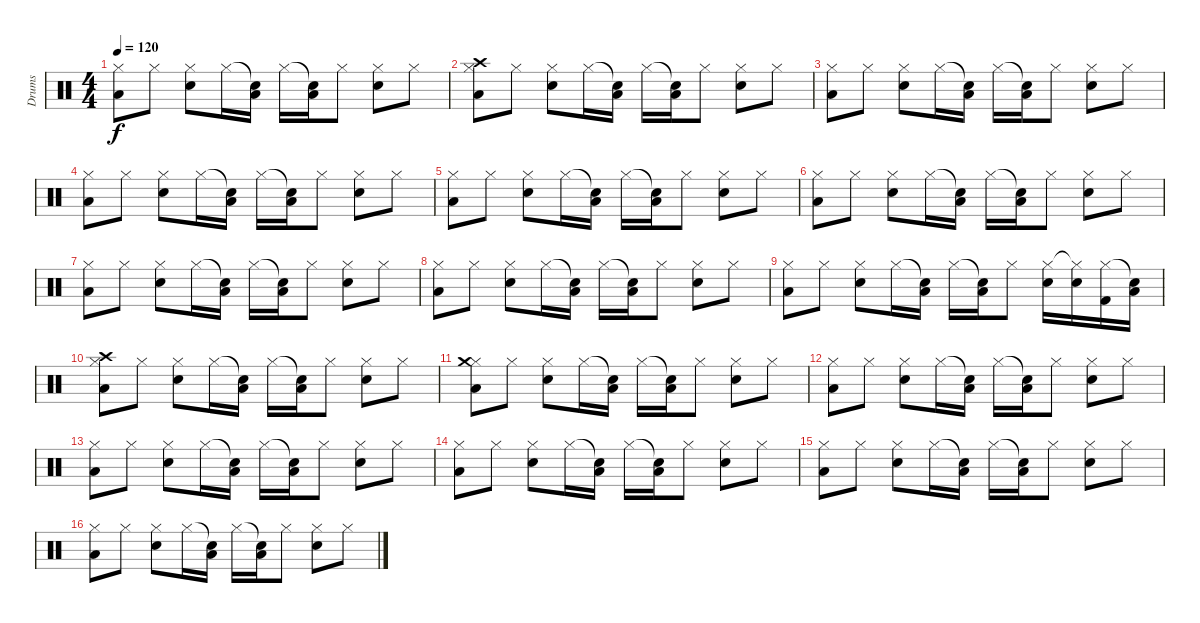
\track ("Drums" "Drums") {instrument percussion}
\staff {score}
\articulation defaults
\ts (4 4)
\tempo 120
\clef neutral
\ks c
("Hi-Hat (closed)" "Low Tom (hit)").8{dy f} "Hi-Hat (closed)".8 ("Hi-Hat (closed)" "Snare (hit) 2").8 "Hi-Hat (closed)".16 ("Snare (hit)"{t} "Low Tom (hit)").16 "Hi-Hat (closed)".16 ("Snare (hit)"{t} "Low Tom (hit)").16 "Hi-Hat (closed)".8 ("Hi-Hat (closed)" "Snare (hit) 2").8 "Hi-Hat (closed)".8 |
("Hi-Hat (closed)" "Low Tom (hit)" "Crash high (hit)").8 "Hi-Hat (closed)".8 ("Hi-Hat (closed)" "Snare (hit) 2").8 "Hi-Hat (closed)".16 ("Snare (hit)"{t} "Low Tom (hit)").16 "Hi-Hat (closed)".16 ("Snare (hit)"{t} "Low Tom (hit)").16 "Hi-Hat (closed)".8 ("Hi-Hat (closed)" "Snare (hit) 2").8 "Hi-Hat (closed)".8 |
("Hi-Hat (closed)" "Low Tom (hit)").8 "Hi-Hat (closed)".8 ("Hi-Hat (closed)" "Snare (hit) 2").8 "Hi-Hat (closed)".16 ("Snare (hit)"{t} "Low Tom (hit)").16 "Hi-Hat (closed)".16 ("Snare (hit)"{t} "Low Tom (hit)").16 "Hi-Hat (closed)".8 ("Hi-Hat (closed)" "Snare (hit) 2").8 "Hi-Hat (closed)".8 |
("Hi-Hat (closed)" "Low Tom (hit)").8 "Hi-Hat (closed)".8 ("Hi-Hat (closed)" "Snare (hit) 2").8 "Hi-Hat (closed)".16 ("Snare (hit)"{t} "Low Tom (hit)").16 "Hi-Hat (closed)".16 ("Snare (hit)"{t} "Low Tom (hit)").16 "Hi-Hat (closed)".8 ("Hi-Hat (closed)" "Snare (hit) 2").8 "Hi-Hat (closed)".8 |
("Hi-Hat (closed)" "Low Tom (hit)").8 "Hi-Hat (closed)".8 ("Hi-Hat (closed)" "Snare (hit) 2").8 "Hi-Hat (closed)".16 ("Snare (hit)"{t} "Low Tom (hit)").16 "Hi-Hat (closed)".16 ("Snare (hit)"{t} "Low Tom (hit)").16 "Hi-Hat (closed)".8 ("Hi-Hat (closed)" "Snare (hit) 2").8 "Hi-Hat (closed)".8 |
("Hi-Hat (closed)" "Low Tom (hit)").8 "Hi-Hat (closed)".8 ("Hi-Hat (closed)" "Snare (hit) 2").8 "Hi-Hat (closed)".16 ("Snare (hit)"{t} "Low Tom (hit)").16 "Hi-Hat (closed)".16 ("Snare (hit)"{t} "Low Tom (hit)").16 "Hi-Hat (closed)".8 ("Hi-Hat (closed)" "Snare (hit) 2").8 "Hi-Hat (closed)".8 |
("Hi-Hat (closed)" "Low Tom (hit)").8 "Hi-Hat (closed)".8 ("Hi-Hat (closed)" "Snare (hit) 2").8 "Hi-Hat (closed)".16 ("Snare (hit)"{t} "Low Tom (hit)").16 "Hi-Hat (closed)".16 ("Snare (hit)"{t} "Low Tom (hit)").16 "Hi-Hat (closed)".8 ("Hi-Hat (closed)" "Snare (hit) 2").8 "Hi-Hat (closed)".8 |
("Hi-Hat (closed)" "Low Tom (hit)").8 "Hi-Hat (closed)".8 ("Hi-Hat (closed)" "Snare (hit) 2").8 "Hi-Hat (closed)".16 ("Snare (hit)"{t} "Low Tom (hit)").16 "Hi-Hat (closed)".16 ("Snare (hit)"{t} "Low Tom (hit)").16 "Hi-Hat (closed)".8 ("Hi-Hat (closed)" "Snare (hit) 2").8 "Hi-Hat (closed)".8 |
("Hi-Hat (closed)" "Low Tom (hit)").8 "Hi-Hat (closed)".8 ("Hi-Hat (closed)" "Snare (hit) 2").8 "Hi-Hat (closed)".16 ("Snare (hit)"{t} "Low Tom (hit)").16 "Hi-Hat (closed)".16 ("Snare (hit)"{t} "Low Tom (hit)").16 "Hi-Hat (closed)".8 ("Hi-Hat (closed)" "Snare (hit) 2").16 ("Hi-Hat (closed)"{t} "Snare (hit) 2").16 ("Hi-Hat (closed)" "Kick (hit) 2").16 ("Snare (hit)"{t} "Low Tom (hit)").16 |
("Hi-Hat (closed)" "Low Tom (hit)" "Crash high (hit)").8 "Hi-Hat (closed)".8 ("Hi-Hat (closed)" "Snare (hit) 2").8 "Hi-Hat (closed)".16 ("Snare (hit)"{t} "Low Tom (hit)").16 "Hi-Hat (closed)".16 ("Snare (hit)"{t} "Low Tom (hit)").16 "Hi-Hat (closed)".8 ("Hi-Hat (closed)" "Snare (hit) 2").8 "Hi-Hat (closed)".8 |
("Hi-Hat (closed)" "Low Tom (hit)" "Crash medium (hit)").8 "Hi-Hat (closed)".8 ("Hi-Hat (closed)" "Snare (hit) 2").8 "Hi-Hat (closed)".16 ("Snare (hit)"{t} "Low Tom (hit)").16 "Hi-Hat (closed)".16 ("Snare (hit)"{t} "Low Tom (hit)").16 "Hi-Hat (closed)".8 ("Hi-Hat (closed)" "Snare (hit) 2").8 "Hi-Hat (closed)".8 |
("Hi-Hat (closed)" "Low Tom (hit)").8 "Hi-Hat (closed)".8 ("Hi-Hat (closed)" "Snare (hit) 2").8 "Hi-Hat (closed)".16 ("Snare (hit)"{t} "Low Tom (hit)").16 "Hi-Hat (closed)".16 ("Snare (hit)"{t} "Low Tom (hit)").16 "Hi-Hat (closed)".8 ("Hi-Hat (closed)" "Snare (hit) 2").8 "Hi-Hat (closed)".8 |
("Hi-Hat (closed)" "Low Tom (hit)").8 "Hi-Hat (closed)".8 ("Hi-Hat (closed)" "Snare (hit) 2").8 "Hi-Hat (closed)".16 ("Snare (hit)"{t} "Low Tom (hit)").16 "Hi-Hat (closed)".16 ("Snare (hit)"{t} "Low Tom (hit)").16 "Hi-Hat (closed)".8 ("Hi-Hat (closed)" "Snare (hit) 2").8 "Hi-Hat (closed)".8 |
("Hi-Hat (closed)" "Low Tom (hit)").8 "Hi-Hat (closed)".8 ("Hi-Hat (closed)" "Snare (hit) 2").8 "Hi-Hat (closed)".16 ("Snare (hit)"{t} "Low Tom (hit)").16 "Hi-Hat (closed)".16 ("Snare (hit)"{t} "Low Tom (hit)").16 "Hi-Hat (closed)".8 ("Hi-Hat (closed)" "Snare (hit) 2").8 "Hi-Hat (closed)".8 |
("Hi-Hat (closed)" "Low Tom (hit)").8 "Hi-Hat (closed)".8 ("Hi-Hat (closed)" "Snare (hit) 2").8 "Hi-Hat (closed)".16 ("Snare (hit)"{t} "Low Tom (hit)").16 "Hi-Hat (closed)".16 ("Snare (hit)"{t} "Low Tom (hit)").16 "Hi-Hat (closed)".8 ("Hi-Hat (closed)" "Snare (hit) 2").8 "Hi-Hat (closed)".8 |
("Hi-Hat (closed)" "Low Tom (hit)").8 "Hi-Hat (closed)".8 ("Hi-Hat (closed)" "Snare (hit) 2").8 "Hi-Hat (closed)".16 ("Snare (hit)"{t} "Low Tom (hit)").16 "Hi-Hat (closed)".16 ("Snare (hit)"{t} "Low Tom (hit)").16 "Hi-Hat (closed)".8 ("Hi-Hat (closed)" "Snare (hit) 2").8 "Hi-Hat (closed)".8
